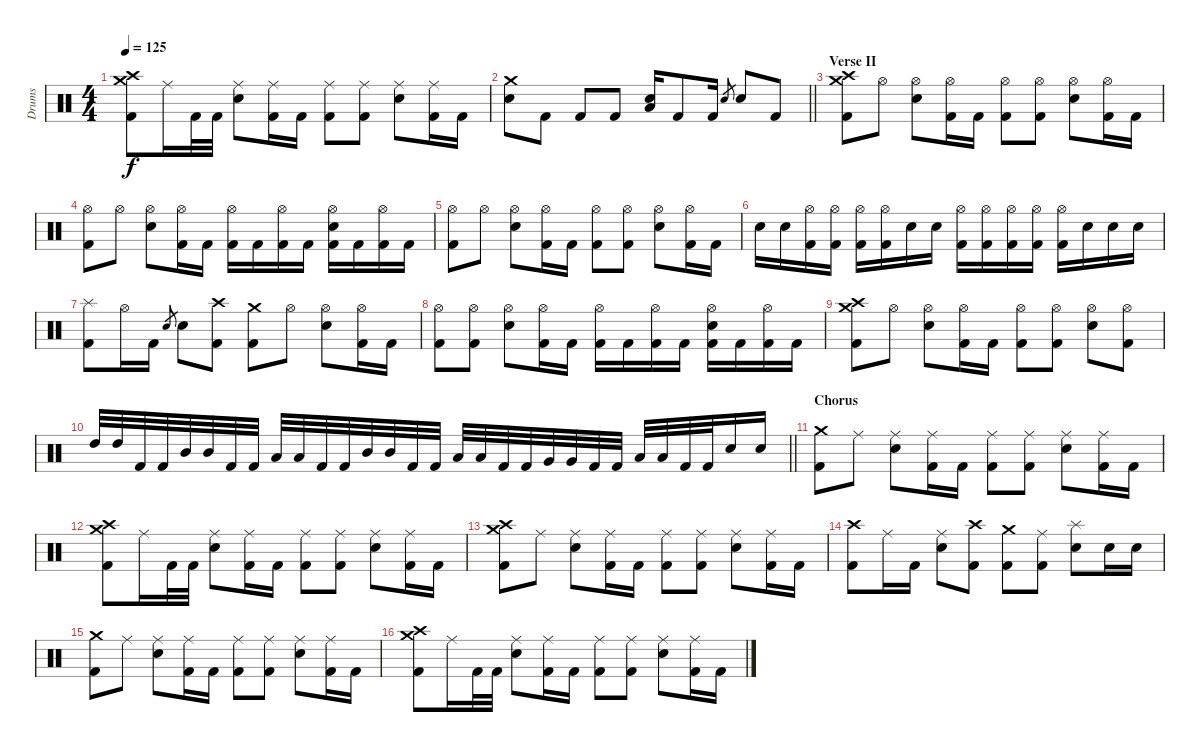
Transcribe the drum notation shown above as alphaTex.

\track ("Drums" "Drums") {instrument percussion}
\staff {score}
\articulation defaults
\ts (4 4)
\tempo 125
\clef neutral
\ks c
("Crash medium (hit)" "Crash high (hit)" "Kick (hit) 2").8{dy f} "Ride (middle)".16 "Kick (hit) 2".32 "Kick (hit) 2".32 ("Ride (middle)" "Electric Snare (hit)").8 ("Ride (middle)" "Kick (hit) 2").16 "Kick (hit) 2".16 ("Ride (middle)" "Kick (hit) 2").8 ("Ride (middle)" "Kick (hit) 2").8 ("Ride (middle)" "Electric Snare (hit)").8 ("Ride (middle)" "Kick (hit) 2").16 "Kick (hit) 2".16 |
\barLineRight lightlight
("Crash medium (hit)" "Electric Snare (hit)").8 "Kick (hit) 2".8 "Kick (hit) 2".8 "Kick (hit) 2".8 ("Low Floor Tom (hit)" "Electric Snare (hit)").16 "Kick (hit) 2".8 "Kick (hit) 2".16 "Electric Snare (hit)".8{gr} "Electric Snare (hit)".8 "Kick (hit) 2".8 |
\section ("" "Verse II")
("Crash medium (hit)" "Crash high (hit)" "Kick (hit) 2").8 "Hi-Hat (open)".8 ("Hi-Hat (open)" "Electric Snare (hit)").8 ("Hi-Hat (open)" "Kick (hit) 2").16 "Kick (hit) 2".16 ("Hi-Hat (open)" "Kick (hit) 2").8 ("Hi-Hat (open)" "Kick (hit) 2").8 ("Hi-Hat (open)" "Electric Snare (hit)").8 ("Hi-Hat (open)" "Kick (hit) 2").16 "Kick (hit) 2".16 |
("Hi-Hat (open)" "Kick (hit) 2").8 "Hi-Hat (open)".8 ("Hi-Hat (open)" "Electric Snare (hit)").8 ("Hi-Hat (open)" "Kick (hit) 2").16 "Kick (hit) 2".16 ("Hi-Hat (open)" "Kick (hit) 2").16 "Kick (hit) 2".16 ("Hi-Hat (open)" "Kick (hit) 2").16 "Kick (hit) 2".16 ("Hi-Hat (open)" "Electric Snare (hit)" "Kick (hit) 2").16 "Kick (hit) 2".16 ("Hi-Hat (open)" "Kick (hit) 2").16 "Kick (hit) 2".16 |
("Hi-Hat (open)" "Kick (hit) 2").8 "Hi-Hat (open)".8 ("Hi-Hat (open)" "Electric Snare (hit)").8 ("Hi-Hat (open)" "Kick (hit) 2").16 "Kick (hit) 2".16 ("Hi-Hat (open)" "Kick (hit) 2").8 ("Hi-Hat (open)" "Kick (hit) 2").8 ("Hi-Hat (open)" "Electric Snare (hit)").8 ("Hi-Hat (open)" "Kick (hit) 2").16 "Kick (hit) 2".16 |
"Electric Snare (hit)".16 "Electric Snare (hit)".16 ("Hi-Hat (open)" "Kick (hit) 2").16 ("Hi-Hat (open)" "Kick (hit) 2").16 ("Hi-Hat (open)" "Kick (hit) 2").16 ("Hi-Hat (open)" "Kick (hit) 2").16 "Electric Snare (hit)".16 "Electric Snare (hit)".16 ("Hi-Hat (open)" "Kick (hit) 2").16 ("Hi-Hat (open)" "Kick (hit) 2").16 ("Hi-Hat (open)" "Kick (hit) 2").16 ("Hi-Hat (open)" "Kick (hit) 2").16 ("Hi-Hat (open)" "Kick (hit) 2").16 "Electric Snare (hit)".16 "Electric Snare (hit)".16 "Electric Snare (hit)".16 |
("Splash (hit)" "Kick (hit) 2").8 "Hi-Hat (open)".16 "Kick (hit) 2".16 "Electric Snare (hit)".8{gr} "Electric Snare (hit)".8 ("Crash high (hit)" "Kick (hit) 2").8 ("Crash medium (hit)" "Kick (hit) 2").8 "Hi-Hat (open)".8 ("Hi-Hat (open)" "Electric Snare (hit)").8 ("Hi-Hat (open)" "Kick (hit) 2").16 "Kick (hit) 2".16 |
("Hi-Hat (open)" "Kick (hit) 2").8 ("Hi-Hat (open)" "Kick (hit) 2").8 ("Hi-Hat (open)" "Electric Snare (hit)").8 ("Hi-Hat (open)" "Kick (hit) 2").16 "Kick (hit) 2".16 ("Hi-Hat (open)" "Kick (hit) 2").16 "Kick (hit) 2".16 ("Hi-Hat (open)" "Kick (hit) 2").16 "Kick (hit) 2".16 ("Hi-Hat (open)" "Electric Snare (hit)" "Kick (hit) 2").16 "Kick (hit) 2".16 ("Hi-Hat (open)" "Kick (hit) 2").16 "Kick (hit) 2".16 |
("Crash medium (hit)" "Crash high (hit)" "Kick (hit) 2").8 "Hi-Hat (open)".8 ("Hi-Hat (open)" "Electric Snare (hit)").8 ("Hi-Hat (open)" "Kick (hit) 2").16 "Kick (hit) 2".16 ("Hi-Hat (open)" "Kick (hit) 2").8 ("Hi-Hat (open)" "Kick (hit) 2").8 ("Hi-Hat (open)" "Electric Snare (hit)").8 ("Hi-Hat (open)" "Kick (hit) 2").8 |
\barLineRight lightlight "High Tom (hit)".32 "High Tom (hit)".32 "Kick (hit) 2".32 "Kick (hit) 2".32 "Mid Tom (hit)".32 "Mid Tom (hit)".32 "Kick (hit) 2".32 "Kick (hit) 2".32 "Low Tom (hit)".32 "Low Tom (hit)".32 "Kick (hit) 2".32 "Kick (hit) 2".32 "Mid Tom (hit)".32 "Mid Tom (hit)".32 "Kick (hit) 2".32 "Kick (hit) 2".32 "Low Tom (hit)".32 "Low Tom (hit)".32 "Kick (hit) 2".32 "Kick (hit) 2".32 "Very Low Tom (hit)".32 "Very Low Tom (hit)".32 "Kick (hit) 2".32 "Kick (hit) 2".32 "Low Floor Tom (hit)".32 "Low Floor Tom (hit)".32 "Kick (hit) 2".32 "Kick (hit) 2".32 "Electric Snare (hit)".16 "Electric Snare (hit)".16
|
\section ("" "Chorus")
("Crash medium (hit)" "Kick (hit) 2").8 "Ride (middle)".8 ("Ride (middle)" "Electric Snare (hit)").8 ("Ride (middle)" "Kick (hit) 2").16 "Kick (hit) 2".16 ("Ride (middle)" "Kick (hit) 2").8 ("Ride (middle)" "Kick (hit) 2").8 ("Ride (middle)" "Electric Snare (hit)").8 ("Ride (middle)" "Kick (hit) 2").16 "Kick (hit) 2".16 |
("Crash medium (hit)" "Crash high (hit)" "Kick (hit) 2").8 "Ride (middle)".16 "Kick (hit) 2".32 "Kick (hit) 2".32 ("Ride (middle)" "Electric Snare (hit)").8 ("Ride (middle)" "Kick (hit) 2").16 "Kick (hit) 2".16 ("Ride (middle)" "Kick (hit) 2").8 ("Ride (middle)" "Kick (hit) 2").8 ("Ride (middle)" "Electric Snare (hit)").8 ("Ride (middle)" "Kick (hit) 2").16 "Kick (hit) 2".16 |
("Crash medium (hit)" "Crash high (hit)" "Kick (hit) 2").8 "Ride (middle)".8 ("Ride (middle)" "Electric Snare (hit)").8 ("Ride (middle)" "Kick (hit) 2").16 "Kick (hit) 2".16 ("Ride (middle)" "Kick (hit) 2").8 ("Ride (middle)" "Kick (hit) 2").8 ("Ride (middle)" "Electric Snare (hit)").8 ("Ride (middle)" "Kick (hit) 2").16 "Kick (hit) 2".16 |
("Crash high (hit)" "Kick (hit) 2").8 "Ride (middle)".16 "Kick (hit) 2".16 ("Ride (middle)" "Electric Snare (hit)").8 ("Crash high (hit)" "Kick (hit) 2").8 ("Crash medium (hit)" "Kick (hit) 2").8 ("Ride (middle)" "Kick (hit) 2").8 ("Splash (hit)" "Electric Snare (hit)").8 "Electric Snare (hit)".16 "Electric Snare (hit)".16 |
("Crash medium (hit)" "Kick (hit) 2").8 "Ride (middle)".8 ("Ride (middle)" "Electric Snare (hit)").8 ("Ride (middle)" "Kick (hit) 2").16 "Kick (hit) 2".16 ("Ride (middle)" "Kick (hit) 2").8 ("Ride (middle)" "Kick (hit) 2").8 ("Ride (middle)" "Electric Snare (hit)").8 ("Ride (middle)" "Kick (hit) 2").16 "Kick (hit) 2".16 |
("Crash medium (hit)" "Crash high (hit)" "Kick (hit) 2").8 "Ride (middle)".16 "Kick (hit) 2".32 "Kick (hit) 2".32 ("Ride (middle)" "Electric Snare (hit)").8 ("Ride (middle)" "Kick (hit) 2").16 "Kick (hit) 2".16 ("Ride (middle)" "Kick (hit) 2").8 ("Ride (middle)" "Kick (hit) 2").8 ("Ride (middle)" "Electric Snare (hit)").8 ("Ride (middle)" "Kick (hit) 2").16 "Kick (hit) 2".16
